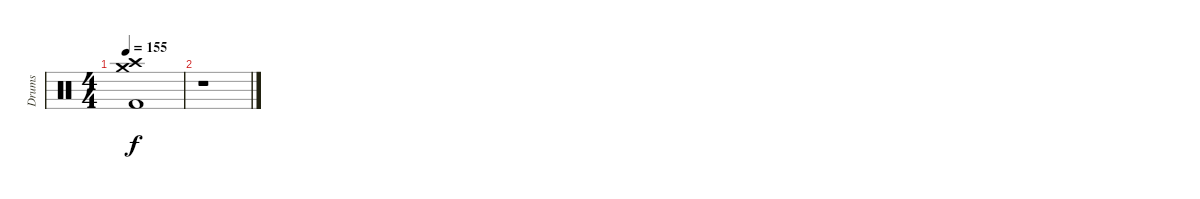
\track ("Drums" "Drums") {instrument percussion}
\staff {score}
\articulation defaults
\ts (4 4)
\tempo 155
\clef neutral
\ks c
("Crash medium (hit)" "Crash high (hit)" "Kick (hit) 2").1{dy f} |
r.1
